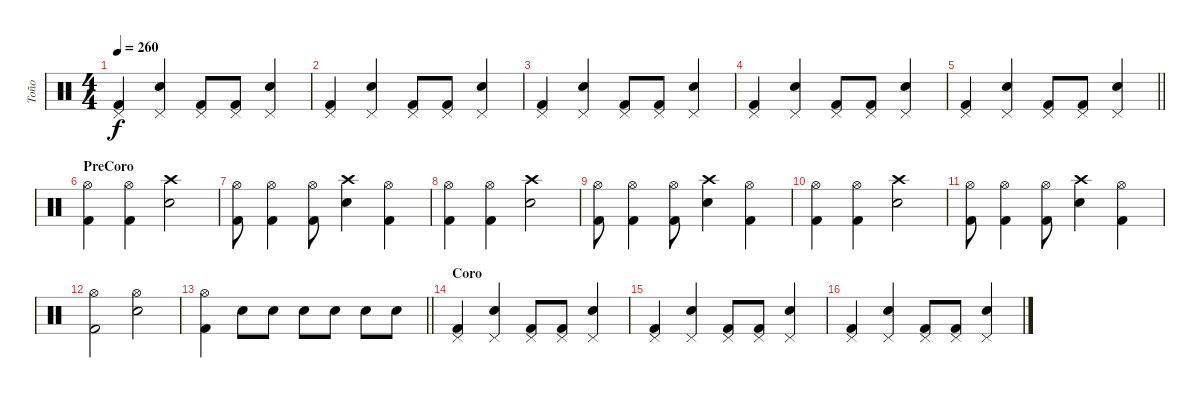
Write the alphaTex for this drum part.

\track ("Toño" "Toño") {instrument percussion}
\staff {score}
\articulation defaults
\ts (4 4)
\tempo 260
\clef neutral
\ks c
("Pedal Hi-Hat (hit)" "Kick (hit) 2").4{dy f} ("Pedal Hi-Hat (hit)" "Electric Snare (hit)").4 ("Pedal Hi-Hat (hit)" "Kick (hit) 2").8 ("Pedal Hi-Hat (hit)" "Kick (hit) 2").8 ("Pedal Hi-Hat (hit)" "Electric Snare (hit)").4 |
("Pedal Hi-Hat (hit)" "Kick (hit) 2").4 ("Pedal Hi-Hat (hit)" "Electric Snare (hit)").4 ("Pedal Hi-Hat (hit)" "Kick (hit) 2").8 ("Pedal Hi-Hat (hit)" "Kick (hit) 2").8 ("Pedal Hi-Hat (hit)" "Electric Snare (hit)").4 |
("Pedal Hi-Hat (hit)" "Kick (hit) 2").4 ("Pedal Hi-Hat (hit)" "Electric Snare (hit)").4 ("Pedal Hi-Hat (hit)" "Kick (hit) 2").8 ("Pedal Hi-Hat (hit)" "Kick (hit) 2").8 ("Pedal Hi-Hat (hit)" "Electric Snare (hit)").4 |
("Pedal Hi-Hat (hit)" "Kick (hit) 2").4 ("Pedal Hi-Hat (hit)" "Electric Snare (hit)").4 ("Pedal Hi-Hat (hit)" "Kick (hit) 2").8 ("Pedal Hi-Hat (hit)" "Kick (hit) 2").8 ("Pedal Hi-Hat (hit)" "Electric Snare (hit)").4 |
\barLineRight lightlight
("Pedal Hi-Hat (hit)" "Kick (hit) 2").4 ("Pedal Hi-Hat (hit)" "Electric Snare (hit)").4 ("Pedal Hi-Hat (hit)" "Kick (hit) 2").8 ("Pedal Hi-Hat (hit)" "Kick (hit) 2").8 ("Pedal Hi-Hat (hit)" "Electric Snare (hit)").4 |
\section ("" "PreCoro")
("Hi-Hat (open)" "Kick (hit) 2").4 ("Hi-Hat (open)" "Kick (hit) 2").4 ("Crash high (hit)" "Electric Snare (hit)").2 |
("Hi-Hat (open)" "Kick (hit) 2").8 ("Hi-Hat (open)" "Kick (hit) 2").4 ("Hi-Hat (open)" "Kick (hit) 2").8 ("Crash high (hit)" "Electric Snare (hit)").4 ("Hi-Hat (open)" "Kick (hit) 2").4 |
("Hi-Hat (open)" "Kick (hit) 2").4 ("Hi-Hat (open)" "Kick (hit) 2").4 ("Crash high (hit)" "Electric Snare (hit)").2 |
("Hi-Hat (open)" "Kick (hit) 2").8 ("Hi-Hat (open)" "Kick (hit) 2").4 ("Hi-Hat (open)" "Kick (hit) 2").8 ("Crash high (hit)" "Electric Snare (hit)").4 ("Hi-Hat (open)" "Kick (hit) 2").4 |
("Hi-Hat (open)" "Kick (hit) 2").4 ("Hi-Hat (open)" "Kick (hit) 2").4 ("Crash high (hit)" "Electric Snare (hit)").2 |
("Hi-Hat (open)" "Kick (hit) 2").8 ("Hi-Hat (open)" "Kick (hit) 2").4 ("Hi-Hat (open)" "Kick (hit) 2").8 ("Crash high (hit)" "Electric Snare (hit)").4 ("Hi-Hat (open)" "Kick (hit) 2").4 |
("Hi-Hat (open)" "Kick (hit) 2").2 ("Hi-Hat (open)" "Electric Snare (hit)").2 |
\barLineRight lightlight
("Hi-Hat (open)" "Kick (hit) 2").4 "Electric Snare (hit)".8 "Electric Snare (hit)".8 "Electric Snare (hit)".8 "Electric Snare (hit)".8 "Electric Snare (hit)".8 "Electric Snare (hit)".8 |
\section ("" "Coro")
("Pedal Hi-Hat (hit)" "Kick (hit) 2").4 ("Pedal Hi-Hat (hit)" "Electric Snare (hit)").4 ("Pedal Hi-Hat (hit)" "Kick (hit) 2").8 ("Pedal Hi-Hat (hit)" "Kick (hit) 2").8 ("Pedal Hi-Hat (hit)" "Electric Snare (hit)").4 |
("Pedal Hi-Hat (hit)" "Kick (hit) 2").4 ("Pedal Hi-Hat (hit)" "Electric Snare (hit)").4 ("Pedal Hi-Hat (hit)" "Kick (hit) 2").8 ("Pedal Hi-Hat (hit)" "Kick (hit) 2").8 ("Pedal Hi-Hat (hit)" "Electric Snare (hit)").4 |
("Pedal Hi-Hat (hit)" "Kick (hit) 2").4 ("Pedal Hi-Hat (hit)" "Electric Snare (hit)").4 ("Pedal Hi-Hat (hit)" "Kick (hit) 2").8 ("Pedal Hi-Hat (hit)" "Kick (hit) 2").8 ("Pedal Hi-Hat (hit)" "Electric Snare (hit)").4
